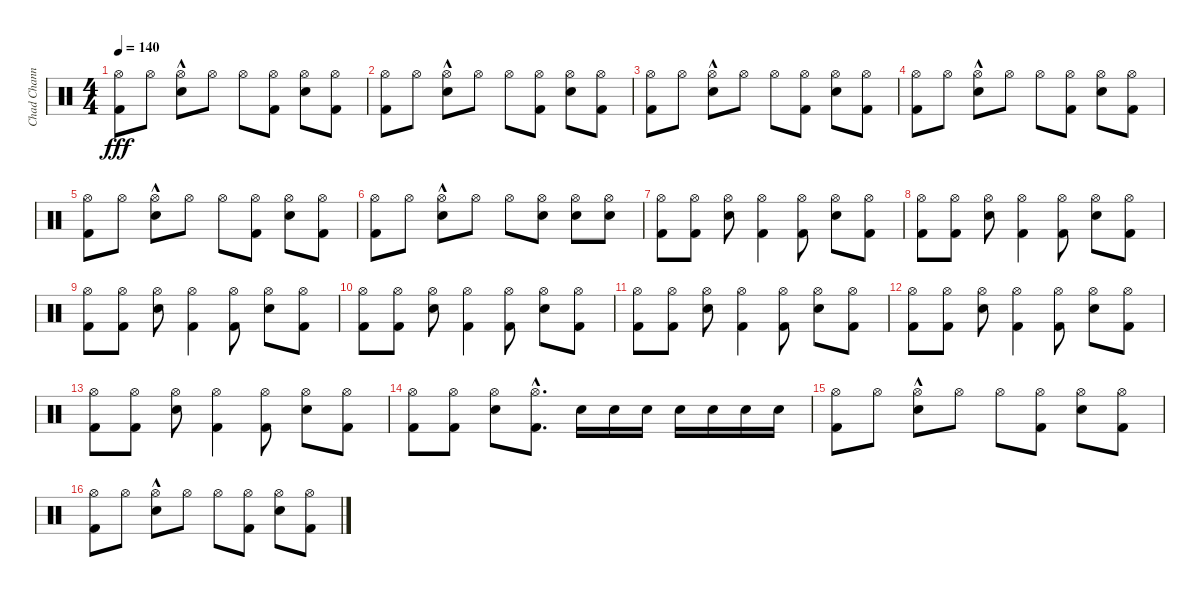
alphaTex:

\track ("Chad Channing" "Chad Chann") {instrument percussion}
\staff {score}
\articulation defaults
\ts (4 4)
\tempo 140
\clef neutral
\ks c
("Hi-Hat (open)" "Kick (hit) 2").8{dy fff} "Hi-Hat (open)".8 ("Hi-Hat (open)" "Electric Snare (hit)"{hac}).8 "Hi-Hat (open)".8 "Hi-Hat (open)".8 ("Hi-Hat (open)" "Kick (hit) 2").8 ("Hi-Hat (open)" "Electric Snare (hit)").8 ("Hi-Hat (open)" "Kick (hit) 2").8 |
("Hi-Hat (open)" "Kick (hit) 2").8 "Hi-Hat (open)".8 ("Hi-Hat (open)" "Electric Snare (hit)"{hac}).8 "Hi-Hat (open)".8 "Hi-Hat (open)".8 ("Hi-Hat (open)" "Kick (hit) 2").8 ("Hi-Hat (open)" "Electric Snare (hit)").8 ("Hi-Hat (open)" "Kick (hit) 2").8 |
("Hi-Hat (open)" "Kick (hit) 2").8 "Hi-Hat (open)".8 ("Hi-Hat (open)" "Electric Snare (hit)"{hac}).8 "Hi-Hat (open)".8 "Hi-Hat (open)".8 ("Hi-Hat (open)" "Kick (hit) 2").8 ("Hi-Hat (open)" "Electric Snare (hit)").8 ("Hi-Hat (open)" "Kick (hit) 2").8 |
("Hi-Hat (open)" "Kick (hit) 2").8 "Hi-Hat (open)".8 ("Hi-Hat (open)" "Electric Snare (hit)"{hac}).8 "Hi-Hat (open)".8 "Hi-Hat (open)".8 ("Hi-Hat (open)" "Kick (hit) 2").8 ("Hi-Hat (open)" "Electric Snare (hit)").8 ("Hi-Hat (open)" "Kick (hit) 2").8 |
("Hi-Hat (open)" "Kick (hit) 2").8 "Hi-Hat (open)".8 ("Hi-Hat (open)" "Electric Snare (hit)"{hac}).8 "Hi-Hat (open)".8 "Hi-Hat (open)".8 ("Hi-Hat (open)" "Kick (hit) 2").8 ("Hi-Hat (open)" "Electric Snare (hit)").8 ("Hi-Hat (open)" "Kick (hit) 2").8 |
("Hi-Hat (open)" "Kick (hit) 2").8 "Hi-Hat (open)".8 ("Hi-Hat (open)" "Electric Snare (hit)"{hac}).8 "Hi-Hat (open)".8 "Hi-Hat (open)".8 ("Hi-Hat (open)" "Electric Snare (hit)").8 ("Hi-Hat (open)" "Electric Snare (hit)").8 ("Hi-Hat (open)" "Electric Snare (hit)").8 |
("Hi-Hat (open)" "Kick (hit) 2").8 ("Hi-Hat (open)" "Kick (hit) 2").8 ("Hi-Hat (open)" "Electric Snare (hit)").8 ("Hi-Hat (open)" "Kick (hit) 2").4 ("Hi-Hat (open)" "Kick (hit) 2").8 ("Hi-Hat (open)" "Electric Snare (hit)").8 ("Hi-Hat (open)" "Kick (hit) 2").8 |
("Hi-Hat (open)" "Kick (hit) 2").8 ("Hi-Hat (open)" "Kick (hit) 2").8 ("Hi-Hat (open)" "Electric Snare (hit)").8 ("Hi-Hat (open)" "Kick (hit) 2").4 ("Hi-Hat (open)" "Kick (hit) 2").8 ("Hi-Hat (open)" "Electric Snare (hit)").8 ("Hi-Hat (open)" "Kick (hit) 2").8 |
("Hi-Hat (open)" "Kick (hit) 2").8 ("Hi-Hat (open)" "Kick (hit) 2").8 ("Hi-Hat (open)" "Electric Snare (hit)").8 ("Hi-Hat (open)" "Kick (hit) 2").4 ("Hi-Hat (open)" "Kick (hit) 2").8 ("Hi-Hat (open)" "Electric Snare (hit)").8 ("Hi-Hat (open)" "Kick (hit) 2").8 |
("Hi-Hat (open)" "Kick (hit) 2").8 ("Hi-Hat (open)" "Kick (hit) 2").8 ("Hi-Hat (open)" "Electric Snare (hit)").8 ("Hi-Hat (open)" "Kick (hit) 2").4 ("Hi-Hat (open)" "Kick (hit) 2").8 ("Hi-Hat (open)" "Electric Snare (hit)").8 ("Hi-Hat (open)" "Kick (hit) 2").8 |
("Hi-Hat (open)" "Kick (hit) 2").8 ("Hi-Hat (open)" "Kick (hit) 2").8 ("Hi-Hat (open)" "Electric Snare (hit)").8 ("Hi-Hat (open)" "Kick (hit) 2").4 ("Hi-Hat (open)" "Kick (hit) 2").8 ("Hi-Hat (open)" "Electric Snare (hit)").8 ("Hi-Hat (open)" "Kick (hit) 2").8 |
("Hi-Hat (open)" "Kick (hit) 2").8 ("Hi-Hat (open)" "Kick (hit) 2").8 ("Hi-Hat (open)" "Electric Snare (hit)").8 ("Hi-Hat (open)" "Kick (hit) 2").4 ("Hi-Hat (open)" "Kick (hit) 2").8 ("Hi-Hat (open)" "Electric Snare (hit)").8 ("Hi-Hat (open)" "Kick (hit) 2").8 |
("Hi-Hat (open)" "Kick (hit) 2").8 ("Hi-Hat (open)" "Kick (hit) 2").8 ("Hi-Hat (open)" "Electric Snare (hit)").8 ("Hi-Hat (open)" "Kick (hit) 2").4 ("Hi-Hat (open)" "Kick (hit) 2").8 ("Hi-Hat (open)" "Electric Snare (hit)").8 ("Hi-Hat (open)" "Kick (hit) 2").8 |
("Hi-Hat (open)" "Kick (hit) 2").8 ("Hi-Hat (open)" "Kick (hit) 2").8 ("Hi-Hat (open)" "Electric Snare (hit)").8 ("Hi-Hat (open)" "Kick (hit) 2"{hac}).8{d} "Electric Snare (hit)".16 "Electric Snare (hit)".16 "Electric Snare (hit)".16 "Electric Snare (hit)".16 "Electric Snare (hit)".16 "Electric Snare (hit)".16 "Electric Snare (hit)".16 |
("Hi-Hat (open)" "Kick (hit) 2").8 "Hi-Hat (open)".8 ("Hi-Hat (open)" "Electric Snare (hit)"{hac}).8 "Hi-Hat (open)".8 "Hi-Hat (open)".8 ("Hi-Hat (open)" "Kick (hit) 2").8 ("Hi-Hat (open)" "Electric Snare (hit)").8 ("Hi-Hat (open)" "Kick (hit) 2").8 |
("Hi-Hat (open)" "Kick (hit) 2").8 "Hi-Hat (open)".8 ("Hi-Hat (open)" "Electric Snare (hit)"{hac}).8 "Hi-Hat (open)".8 "Hi-Hat (open)".8 ("Hi-Hat (open)" "Kick (hit) 2").8 ("Hi-Hat (open)" "Electric Snare (hit)").8 ("Hi-Hat (open)" "Kick (hit) 2").8
